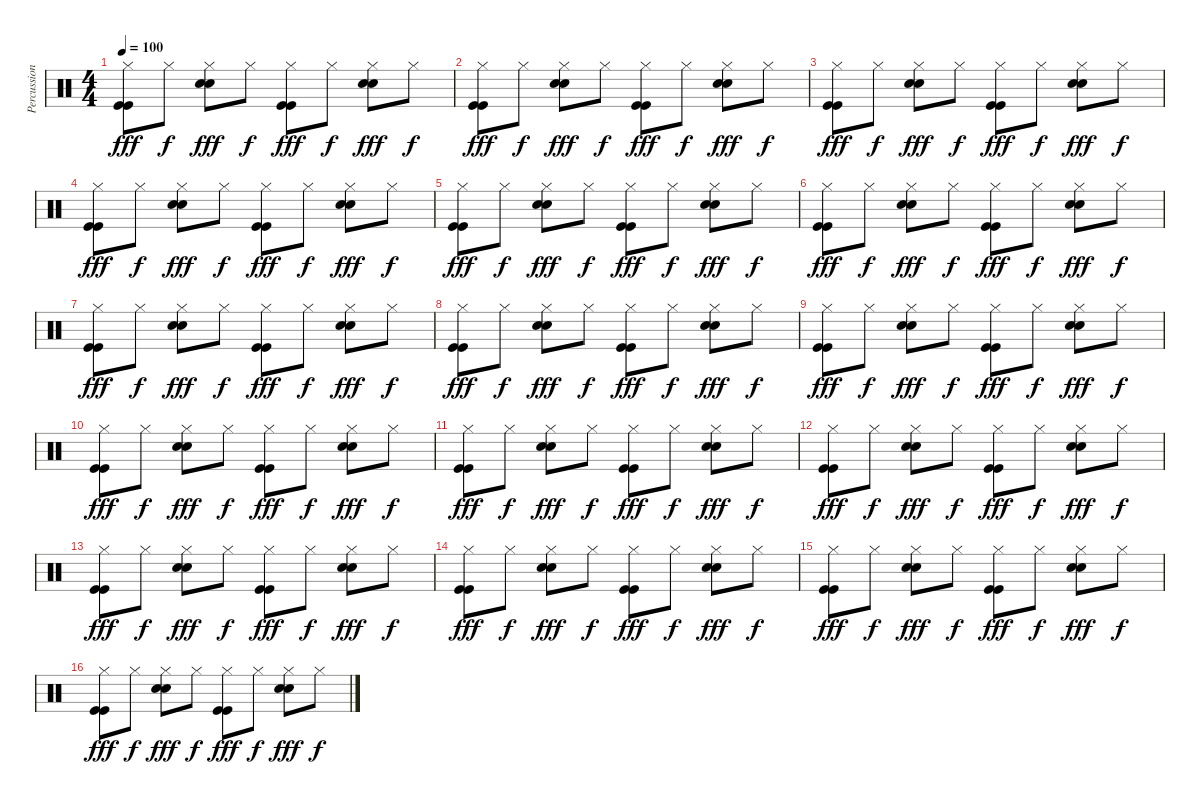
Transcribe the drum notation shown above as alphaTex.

\track ("Percussion" "Percussion") {instrument percussion}
\staff {score}
\articulation defaults
\ts (4 4)
\tempo 100
\clef neutral
\ks c
("Hi-Hat (closed)" "Kick (hit)" "Kick (hit)").8{dy fff} "Hi-Hat (closed)".8{dy f} ("Hi-Hat (closed)" "Snare (hit) 2" "Snare (hit) 2").8{dy fff} "Hi-Hat (closed)".8{dy f} ("Hi-Hat (closed)" "Kick (hit)" "Kick (hit)").8{dy fff} "Hi-Hat (closed)".8{dy f} ("Hi-Hat (closed)" "Snare (hit) 2" "Snare (hit) 2").8{dy fff} "Hi-Hat (closed)".8{dy f} |
("Hi-Hat (closed)" "Kick (hit)" "Kick (hit)").8{dy fff} "Hi-Hat (closed)".8{dy f} ("Hi-Hat (closed)" "Snare (hit) 2" "Snare (hit) 2").8{dy fff} "Hi-Hat (closed)".8{dy f} ("Hi-Hat (closed)" "Kick (hit)" "Kick (hit)").8{dy fff} "Hi-Hat (closed)".8{dy f} ("Hi-Hat (closed)" "Snare (hit) 2" "Snare (hit) 2").8{dy fff} "Hi-Hat (closed)".8{dy f} |
("Hi-Hat (closed)" "Kick (hit)" "Kick (hit)").8{dy fff} "Hi-Hat (closed)".8{dy f} ("Hi-Hat (closed)" "Snare (hit) 2" "Snare (hit) 2").8{dy fff} "Hi-Hat (closed)".8{dy f} ("Hi-Hat (closed)" "Kick (hit)" "Kick (hit)").8{dy fff} "Hi-Hat (closed)".8{dy f} ("Hi-Hat (closed)" "Snare (hit) 2" "Snare (hit) 2").8{dy fff} "Hi-Hat (closed)".8{dy f} |
("Hi-Hat (closed)" "Kick (hit)" "Kick (hit)").8{dy fff} "Hi-Hat (closed)".8{dy f} ("Hi-Hat (closed)" "Snare (hit) 2" "Snare (hit) 2").8{dy fff} "Hi-Hat (closed)".8{dy f} ("Hi-Hat (closed)" "Kick (hit)" "Kick (hit)").8{dy fff} "Hi-Hat (closed)".8{dy f} ("Hi-Hat (closed)" "Snare (hit) 2" "Snare (hit) 2").8{dy fff} "Hi-Hat (closed)".8{dy f} |
("Hi-Hat (closed)" "Kick (hit)" "Kick (hit)").8{dy fff} "Hi-Hat (closed)".8{dy f} ("Hi-Hat (closed)" "Snare (hit) 2" "Snare (hit) 2").8{dy fff} "Hi-Hat (closed)".8{dy f} ("Hi-Hat (closed)" "Kick (hit)" "Kick (hit)").8{dy fff} "Hi-Hat (closed)".8{dy f} ("Hi-Hat (closed)" "Snare (hit) 2" "Snare (hit) 2").8{dy fff} "Hi-Hat (closed)".8{dy f} |
("Hi-Hat (closed)" "Kick (hit)" "Kick (hit)").8{dy fff} "Hi-Hat (closed)".8{dy f} ("Hi-Hat (closed)" "Snare (hit) 2" "Snare (hit) 2").8{dy fff} "Hi-Hat (closed)".8{dy f} ("Hi-Hat (closed)" "Kick (hit)" "Kick (hit)").8{dy fff} "Hi-Hat (closed)".8{dy f} ("Hi-Hat (closed)" "Snare (hit) 2" "Snare (hit) 2").8{dy fff} "Hi-Hat (closed)".8{dy f} |
("Hi-Hat (closed)" "Kick (hit)" "Kick (hit)").8{dy fff} "Hi-Hat (closed)".8{dy f} ("Hi-Hat (closed)" "Snare (hit) 2" "Snare (hit) 2").8{dy fff} "Hi-Hat (closed)".8{dy f} ("Hi-Hat (closed)" "Kick (hit)" "Kick (hit)").8{dy fff} "Hi-Hat (closed)".8{dy f} ("Hi-Hat (closed)" "Snare (hit) 2" "Snare (hit) 2").8{dy fff} "Hi-Hat (closed)".8{dy f} |
("Hi-Hat (closed)" "Kick (hit)" "Kick (hit)").8{dy fff} "Hi-Hat (closed)".8{dy f} ("Hi-Hat (closed)" "Snare (hit) 2" "Snare (hit) 2").8{dy fff} "Hi-Hat (closed)".8{dy f} ("Hi-Hat (closed)" "Kick (hit)" "Kick (hit)").8{dy fff} "Hi-Hat (closed)".8{dy f} ("Hi-Hat (closed)" "Snare (hit) 2" "Snare (hit) 2").8{dy fff} "Hi-Hat (closed)".8{dy f} |
("Hi-Hat (closed)" "Kick (hit)" "Kick (hit)").8{dy fff} "Hi-Hat (closed)".8{dy f} ("Hi-Hat (closed)" "Snare (hit) 2" "Snare (hit) 2").8{dy fff} "Hi-Hat (closed)".8{dy f} ("Hi-Hat (closed)" "Kick (hit)" "Kick (hit)").8{dy fff} "Hi-Hat (closed)".8{dy f} ("Hi-Hat (closed)" "Snare (hit) 2" "Snare (hit) 2").8{dy fff} "Hi-Hat (closed)".8{dy f} |
("Hi-Hat (closed)" "Kick (hit)" "Kick (hit)").8{dy fff} "Hi-Hat (closed)".8{dy f} ("Hi-Hat (closed)" "Snare (hit) 2" "Snare (hit) 2").8{dy fff} "Hi-Hat (closed)".8{dy f} ("Hi-Hat (closed)" "Kick (hit)" "Kick (hit)").8{dy fff} "Hi-Hat (closed)".8{dy f} ("Hi-Hat (closed)" "Snare (hit) 2" "Snare (hit) 2").8{dy fff} "Hi-Hat (closed)".8{dy f} |
("Hi-Hat (closed)" "Kick (hit)" "Kick (hit)").8{dy fff} "Hi-Hat (closed)".8{dy f} ("Hi-Hat (closed)" "Snare (hit) 2" "Snare (hit) 2").8{dy fff} "Hi-Hat (closed)".8{dy f} ("Hi-Hat (closed)" "Kick (hit)" "Kick (hit)").8{dy fff} "Hi-Hat (closed)".8{dy f} ("Hi-Hat (closed)" "Snare (hit) 2" "Snare (hit) 2").8{dy fff} "Hi-Hat (closed)".8{dy f} |
("Hi-Hat (closed)" "Kick (hit)" "Kick (hit)").8{dy fff} "Hi-Hat (closed)".8{dy f} ("Hi-Hat (closed)" "Snare (hit) 2" "Snare (hit) 2").8{dy fff} "Hi-Hat (closed)".8{dy f} ("Hi-Hat (closed)" "Kick (hit)" "Kick (hit)").8{dy fff} "Hi-Hat (closed)".8{dy f} ("Hi-Hat (closed)" "Snare (hit) 2" "Snare (hit) 2").8{dy fff} "Hi-Hat (closed)".8{dy f} |
("Hi-Hat (closed)" "Kick (hit)" "Kick (hit)").8{dy fff} "Hi-Hat (closed)".8{dy f} ("Hi-Hat (closed)" "Snare (hit) 2" "Snare (hit) 2").8{dy fff} "Hi-Hat (closed)".8{dy f} ("Hi-Hat (closed)" "Kick (hit)" "Kick (hit)").8{dy fff} "Hi-Hat (closed)".8{dy f} ("Hi-Hat (closed)" "Snare (hit) 2" "Snare (hit) 2").8{dy fff} "Hi-Hat (closed)".8{dy f} |
("Hi-Hat (closed)" "Kick (hit)" "Kick (hit)").8{dy fff} "Hi-Hat (closed)".8{dy f} ("Hi-Hat (closed)" "Snare (hit) 2" "Snare (hit) 2").8{dy fff} "Hi-Hat (closed)".8{dy f} ("Hi-Hat (closed)" "Kick (hit)" "Kick (hit)").8{dy fff} "Hi-Hat (closed)".8{dy f} ("Hi-Hat (closed)" "Snare (hit) 2" "Snare (hit) 2").8{dy fff} "Hi-Hat (closed)".8{dy f} |
("Hi-Hat (closed)" "Kick (hit)" "Kick (hit)").8{dy fff} "Hi-Hat (closed)".8{dy f} ("Hi-Hat (closed)" "Snare (hit) 2" "Snare (hit) 2").8{dy fff} "Hi-Hat (closed)".8{dy f} ("Hi-Hat (closed)" "Kick (hit)" "Kick (hit)").8{dy fff} "Hi-Hat (closed)".8{dy f} ("Hi-Hat (closed)" "Snare (hit) 2" "Snare (hit) 2").8{dy fff} "Hi-Hat (closed)".8{dy f} |
("Hi-Hat (closed)" "Kick (hit)" "Kick (hit)").8{dy fff} "Hi-Hat (closed)".8{dy f} ("Hi-Hat (closed)" "Snare (hit) 2" "Snare (hit) 2").8{dy fff} "Hi-Hat (closed)".8{dy f} ("Hi-Hat (closed)" "Kick (hit)" "Kick (hit)").8{dy fff} "Hi-Hat (closed)".8{dy f} ("Hi-Hat (closed)" "Snare (hit) 2" "Snare (hit) 2").8{dy fff} "Hi-Hat (closed)".8{dy f}
